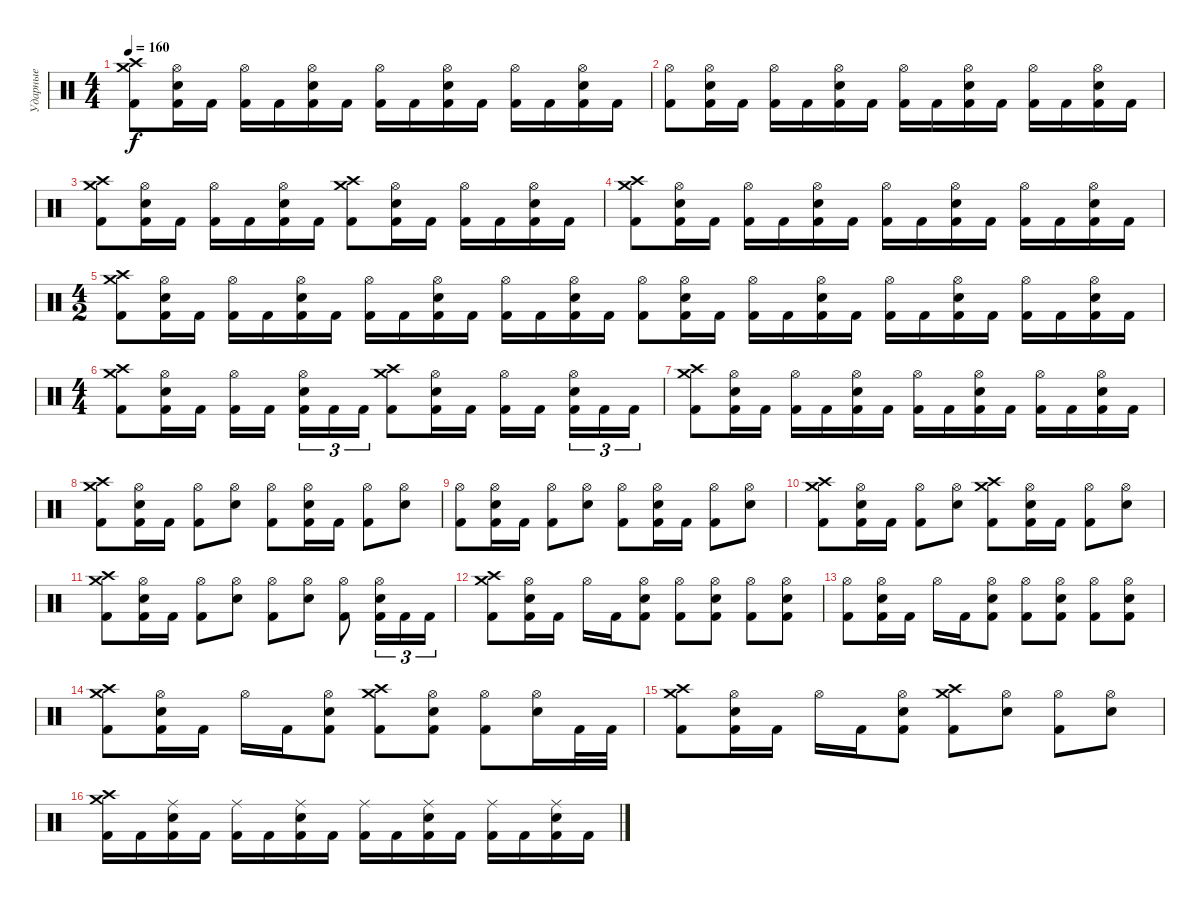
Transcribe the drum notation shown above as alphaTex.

\track ("Ударные" "Ударные") {instrument percussion}
\staff {score}
\articulation defaults
\ts (4 4)
\tempo 160
\clef neutral
\ks c
("Kick (hit) 2" "Crash high (hit)" "Crash medium (hit)").8{dy f} ("Kick (hit) 2" "Electric Snare (hit)" "Hi-Hat (open)").16 "Kick (hit) 2".16 ("Kick (hit) 2" "Hi-Hat (open)").16 "Kick (hit) 2".16 ("Kick (hit) 2" "Electric Snare (hit)" "Hi-Hat (open)").16 "Kick (hit) 2".16 ("Kick (hit) 2" "Hi-Hat (open)").16 "Kick (hit) 2".16 ("Kick (hit) 2" "Electric Snare (hit)" "Hi-Hat (open)").16 "Kick (hit) 2".16 ("Kick (hit) 2" "Hi-Hat (open)").16 "Kick (hit) 2".16 ("Kick (hit) 2" "Electric Snare (hit)" "Hi-Hat (open)").16 "Kick (hit) 2".16 |
("Kick (hit) 2" "Hi-Hat (open)").8 ("Kick (hit) 2" "Electric Snare (hit)" "Hi-Hat (open)").16 "Kick (hit) 2".16 ("Kick (hit) 2" "Hi-Hat (open)").16 "Kick (hit) 2".16 ("Kick (hit) 2" "Electric Snare (hit)" "Hi-Hat (open)").16 "Kick (hit) 2".16 ("Kick (hit) 2" "Hi-Hat (open)").16 "Kick (hit) 2".16 ("Kick (hit) 2" "Electric Snare (hit)" "Hi-Hat (open)").16 "Kick (hit) 2".16 ("Kick (hit) 2" "Hi-Hat (open)").16 "Kick (hit) 2".16 ("Kick (hit) 2" "Electric Snare (hit)" "Hi-Hat (open)").16 "Kick (hit) 2".16 |
("Kick (hit) 2" "Crash high (hit)" "Crash medium (hit)").8 ("Kick (hit) 2" "Electric Snare (hit)" "Hi-Hat (open)").16 "Kick (hit) 2".16 ("Kick (hit) 2" "Hi-Hat (open)").16 "Kick (hit) 2".16 ("Kick (hit) 2" "Electric Snare (hit)" "Hi-Hat (open)").16 "Kick (hit) 2".16 ("Kick (hit) 2" "Crash high (hit)" "Crash medium (hit)").8 ("Kick (hit) 2" "Electric Snare (hit)" "Hi-Hat (open)").16 "Kick (hit) 2".16 ("Kick (hit) 2" "Hi-Hat (open)").16 "Kick (hit) 2".16 ("Kick (hit) 2" "Electric Snare (hit)" "Hi-Hat (open)").16 "Kick (hit) 2".16 |
("Kick (hit) 2" "Crash high (hit)" "Crash medium (hit)").8 ("Kick (hit) 2" "Electric Snare (hit)" "Hi-Hat (open)").16 "Kick (hit) 2".16 ("Kick (hit) 2" "Hi-Hat (open)").16 "Kick (hit) 2".16 ("Kick (hit) 2" "Electric Snare (hit)" "Hi-Hat (open)").16 "Kick (hit) 2".16 ("Kick (hit) 2" "Hi-Hat (open)").16 "Kick (hit) 2".16 ("Kick (hit) 2" "Electric Snare (hit)" "Hi-Hat (open)").16 "Kick (hit) 2".16 ("Kick (hit) 2" "Hi-Hat (open)").16 "Kick (hit) 2".16 ("Kick (hit) 2" "Electric Snare (hit)" "Hi-Hat (open)").16 "Kick (hit) 2".16 |
\ts (4 2)
("Kick (hit) 2" "Crash high (hit)" "Crash medium (hit)").8 ("Kick (hit) 2" "Electric Snare (hit)" "Hi-Hat (open)").16 "Kick (hit) 2".16 ("Kick (hit) 2" "Hi-Hat (open)").16 "Kick (hit) 2".16 ("Kick (hit) 2" "Electric Snare (hit)" "Hi-Hat (open)").16 "Kick (hit) 2".16 ("Kick (hit) 2" "Hi-Hat (open)").16 "Kick (hit) 2".16 ("Kick (hit) 2" "Electric Snare (hit)" "Hi-Hat (open)").16 "Kick (hit) 2".16 ("Kick (hit) 2" "Hi-Hat (open)").16 "Kick (hit) 2".16 ("Kick (hit) 2" "Electric Snare (hit)" "Hi-Hat (open)").16 "Kick (hit) 2".16 ("Kick (hit) 2" "Hi-Hat (open)").8 ("Kick (hit) 2" "Electric Snare (hit)" "Hi-Hat (open)").16 "Kick (hit) 2".16 ("Kick (hit) 2" "Hi-Hat (open)").16 "Kick (hit) 2".16 ("Kick (hit) 2" "Electric Snare (hit)" "Hi-Hat (open)").16 "Kick (hit) 2".16 ("Kick (hit) 2" "Hi-Hat (open)").16 "Kick (hit) 2".16 ("Kick (hit) 2" "Electric Snare (hit)" "Hi-Hat (open)").16 "Kick (hit) 2".16 ("Kick (hit) 2" "Hi-Hat (open)").16 "Kick (hit) 2".16 ("Kick (hit) 2" "Electric Snare (hit)" "Hi-Hat (open)").16 "Kick (hit) 2".16 |
\ts (4 4)
("Kick (hit) 2" "Crash high (hit)" "Crash medium (hit)").8 ("Kick (hit) 2" "Electric Snare (hit)" "Hi-Hat (open)").16 "Kick (hit) 2".16 ("Kick (hit) 2" "Hi-Hat (open)").16 "Kick (hit) 2".16 ("Kick (hit) 2" "Electric Snare (hit)" "Hi-Hat (open)").16{tu (3 2)} "Kick (hit) 2".16{tu (3 2)} "Kick (hit) 2".16{tu (3 2)} ("Kick (hit) 2" "Crash high (hit)" "Crash medium (hit)").8 ("Kick (hit) 2" "Electric Snare (hit)" "Hi-Hat (open)").16 "Kick (hit) 2".16 ("Kick (hit) 2" "Hi-Hat (open)").16 "Kick (hit) 2".16 ("Kick (hit) 2" "Electric Snare (hit)" "Hi-Hat (open)").16{tu (3 2)} "Kick (hit) 2".16{tu (3 2)} "Kick (hit) 2".16{tu (3 2)} |
("Kick (hit) 2" "Crash high (hit)" "Crash medium (hit)").8 ("Kick (hit) 2" "Electric Snare (hit)" "Hi-Hat (open)").16 "Kick (hit) 2".16 ("Kick (hit) 2" "Hi-Hat (open)").16 "Kick (hit) 2".16 ("Kick (hit) 2" "Electric Snare (hit)" "Hi-Hat (open)").16 "Kick (hit) 2".16 ("Kick (hit) 2" "Hi-Hat (open)").16 "Kick (hit) 2".16 ("Kick (hit) 2" "Electric Snare (hit)" "Hi-Hat (open)").16 "Kick (hit) 2".16 ("Kick (hit) 2" "Hi-Hat (open)").16 "Kick (hit) 2".16 ("Kick (hit) 2" "Electric Snare (hit)" "Hi-Hat (open)").16 "Kick (hit) 2".16 |
("Kick (hit) 2" "Crash high (hit)" "Crash medium (hit)").8 ("Kick (hit) 2" "Electric Snare (hit)" "Hi-Hat (open)").16 "Kick (hit) 2".16 ("Kick (hit) 2" "Hi-Hat (open)").8 ("Electric Snare (hit)" "Hi-Hat (open)").8 ("Kick (hit) 2" "Hi-Hat (open)").8 ("Kick (hit) 2" "Electric Snare (hit)" "Hi-Hat (open)").16 "Kick (hit) 2".16 ("Kick (hit) 2" "Hi-Hat (open)").8 ("Electric Snare (hit)" "Hi-Hat (open)").8 |
("Kick (hit) 2" "Hi-Hat (open)").8 ("Kick (hit) 2" "Electric Snare (hit)" "Hi-Hat (open)").16 "Kick (hit) 2".16 ("Kick (hit) 2" "Hi-Hat (open)").8 ("Electric Snare (hit)" "Hi-Hat (open)").8 ("Kick (hit) 2" "Hi-Hat (open)").8 ("Kick (hit) 2" "Electric Snare (hit)" "Hi-Hat (open)").16 "Kick (hit) 2".16 ("Kick (hit) 2" "Hi-Hat (open)").8 ("Electric Snare (hit)" "Hi-Hat (open)").8 |
("Kick (hit) 2" "Crash high (hit)" "Crash medium (hit)").8 ("Kick (hit) 2" "Electric Snare (hit)" "Hi-Hat (open)").16 "Kick (hit) 2".16 ("Kick (hit) 2" "Hi-Hat (open)").8 ("Electric Snare (hit)" "Hi-Hat (open)").8 ("Kick (hit) 2" "Crash high (hit)" "Crash medium (hit)").8 ("Kick (hit) 2" "Electric Snare (hit)" "Hi-Hat (open)").16 "Kick (hit) 2".16 ("Kick (hit) 2" "Hi-Hat (open)").8 ("Electric Snare (hit)" "Hi-Hat (open)").8 |
("Kick (hit) 2" "Crash high (hit)" "Crash medium (hit)").8 ("Kick (hit) 2" "Electric Snare (hit)" "Hi-Hat (open)").16 "Kick (hit) 2".16 ("Kick (hit) 2" "Hi-Hat (open)").8 ("Electric Snare (hit)" "Hi-Hat (open)").8 ("Kick (hit) 2" "Hi-Hat (open)").8 ("Electric Snare (hit)" "Hi-Hat (open)").8 ("Kick (hit) 2" "Hi-Hat (open)").8 ("Kick (hit) 2" "Electric Snare (hit)" "Hi-Hat (open)").16{tu (3 2)} "Kick (hit) 2".16{tu (3 2)} "Kick (hit) 2".16{tu (3 2)} |
("Kick (hit) 2" "Crash high (hit)" "Crash medium (hit)").8 ("Kick (hit) 2" "Electric Snare (hit)" "Hi-Hat (open)").16 "Kick (hit) 2".16 "Hi-Hat (open)".16 "Kick (hit) 2".16 ("Kick (hit) 2" "Electric Snare (hit)" "Hi-Hat (open)").8 ("Kick (hit) 2" "Hi-Hat (open)").8 ("Kick (hit) 2" "Electric Snare (hit)" "Hi-Hat (open)").8 ("Kick (hit) 2" "Hi-Hat (open)").8 ("Kick (hit) 2" "Electric Snare (hit)" "Hi-Hat (open)").8 |
("Kick (hit) 2" "Hi-Hat (open)").8 ("Kick (hit) 2" "Electric Snare (hit)" "Hi-Hat (open)").16 "Kick (hit) 2".16 "Hi-Hat (open)".16 "Kick (hit) 2".16 ("Kick (hit) 2" "Electric Snare (hit)" "Hi-Hat (open)").8 ("Kick (hit) 2" "Hi-Hat (open)").8 ("Kick (hit) 2" "Electric Snare (hit)" "Hi-Hat (open)").8 ("Kick (hit) 2" "Hi-Hat (open)").8 ("Kick (hit) 2" "Electric Snare (hit)" "Hi-Hat (open)").8 |
("Kick (hit) 2" "Crash high (hit)" "Crash medium (hit)").8 ("Kick (hit) 2" "Electric Snare (hit)" "Hi-Hat (open)").16 "Kick (hit) 2".16 "Hi-Hat (open)".16 "Kick (hit) 2".16 ("Kick (hit) 2" "Electric Snare (hit)" "Hi-Hat (open)").8 ("Kick (hit) 2" "Crash high (hit)" "Crash medium (hit)").8 ("Kick (hit) 2" "Electric Snare (hit)" "Hi-Hat (open)").8 ("Kick (hit) 2" "Hi-Hat (open)").8 ("Electric Snare (hit)" "Hi-Hat (open)").16 "Kick (hit) 2".32 "Kick (hit) 2".32 |
("Kick (hit) 2" "Crash high (hit)" "Crash medium (hit)").8 ("Kick (hit) 2" "Electric Snare (hit)" "Hi-Hat (open)").16 "Kick (hit) 2".16 "Hi-Hat (open)".16 "Kick (hit) 2".16 ("Kick (hit) 2" "Electric Snare (hit)" "Hi-Hat (open)").8 ("Kick (hit) 2" "Crash high (hit)" "Crash medium (hit)").8 ("Electric Snare (hit)" "Hi-Hat (open)").8 ("Kick (hit) 2" "Hi-Hat (open)").8 ("Electric Snare (hit)" "Hi-Hat (open)").8 |
("Kick (hit) 2" "Crash high (hit)" "Crash medium (hit)").16 "Kick (hit) 2".16 ("Kick (hit) 2" "Electric Snare (hit)" "Ride (middle)").16 "Kick (hit) 2".16 ("Kick (hit) 2" "Ride (middle)").16 "Kick (hit) 2".16 ("Kick (hit) 2" "Electric Snare (hit)" "Ride (middle)").16 "Kick (hit) 2".16 ("Kick (hit) 2" "Ride (middle)").16 "Kick (hit) 2".16 ("Kick (hit) 2" "Electric Snare (hit)" "Ride (middle)").16 "Kick (hit) 2".16 ("Kick (hit) 2" "Ride (middle)").16 "Kick (hit) 2".16 ("Kick (hit) 2" "Electric Snare (hit)" "Ride (middle)").16 "Kick (hit) 2".16
